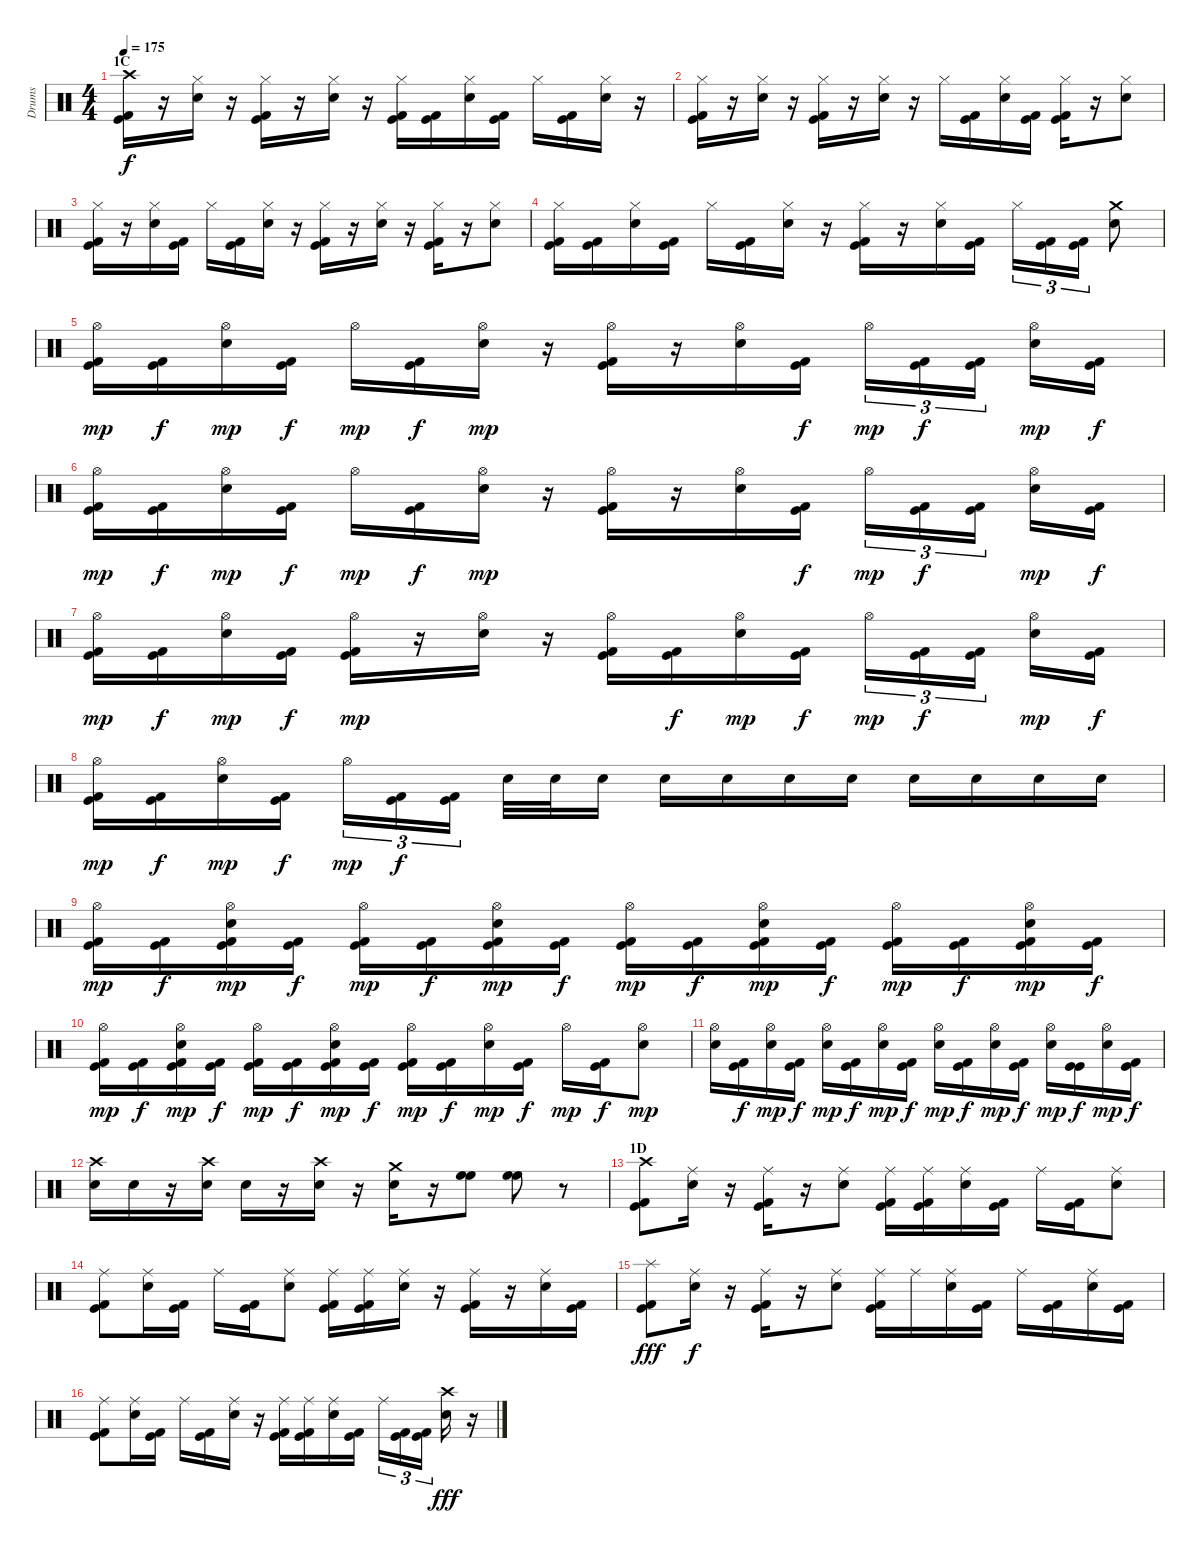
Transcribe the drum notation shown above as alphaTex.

\track ("Drums" "Drums") {instrument percussion}
\staff {score}
\articulation defaults
\ts (4 4)
\section ("" "1C")
\tempo 175
\clef neutral
\ks c
("Crash high (hit)" "Kick (hit)" "Kick (hit) 2").16{dy f} r.16 ("Hi-Hat (closed)" "Electric Snare (hit)").16 r.16 ("Hi-Hat (closed)" "Kick (hit)" "Kick (hit) 2").16 r.16 ("Hi-Hat (closed)" "Electric Snare (hit)").16 r.16 ("Hi-Hat (closed)" "Kick (hit)" "Kick (hit) 2").16 ("Kick (hit)" "Kick (hit) 2").16 ("Hi-Hat (closed)" "Electric Snare (hit)").16 ("Kick (hit)" "Kick (hit) 2").16 "Hi-Hat (closed)".16 ("Kick (hit)" "Kick (hit) 2").16 ("Hi-Hat (closed)" "Electric Snare (hit)").16 r.16 |
("Hi-Hat (closed)" "Kick (hit)" "Kick (hit) 2").16 r.16 ("Hi-Hat (closed)" "Electric Snare (hit)").16 r.16 ("Hi-Hat (closed)" "Kick (hit)" "Kick (hit) 2").16 r.16 ("Hi-Hat (closed)" "Electric Snare (hit)").16 r.16 "Hi-Hat (closed)".16 ("Kick (hit)" "Kick (hit) 2").16 ("Hi-Hat (closed)" "Electric Snare (hit)").16 ("Kick (hit)" "Kick (hit) 2").16 ("Hi-Hat (closed)" "Kick (hit)" "Kick (hit) 2").16 r.16 ("Hi-Hat (closed)" "Electric Snare (hit)").8 |
("Hi-Hat (closed)" "Kick (hit)" "Kick (hit) 2").16 r.16 ("Hi-Hat (closed)" "Electric Snare (hit)").16 ("Kick (hit)" "Kick (hit) 2").16 "Hi-Hat (closed)".16 ("Kick (hit)" "Kick (hit) 2").16 ("Hi-Hat (closed)" "Electric Snare (hit)").16 r.16 ("Hi-Hat (closed)" "Kick (hit)" "Kick (hit) 2").16 r.16 ("Hi-Hat (closed)" "Electric Snare (hit)").16 r.16 ("Hi-Hat (closed)" "Kick (hit)" "Kick (hit) 2").16 r.16 ("Hi-Hat (closed)" "Electric Snare (hit)").8 |
("Hi-Hat (closed)" "Kick (hit)" "Kick (hit) 2").16 ("Kick (hit)" "Kick (hit) 2").16 ("Hi-Hat (closed)" "Electric Snare (hit)").16 ("Kick (hit)" "Kick (hit) 2").16 "Hi-Hat (closed)".16 ("Kick (hit)" "Kick (hit) 2").16 ("Hi-Hat (closed)" "Electric Snare (hit)").16 r.16 ("Hi-Hat (closed)" "Kick (hit)" "Kick (hit) 2").16 r.16 ("Hi-Hat (closed)" "Electric Snare (hit)").16 ("Kick (hit)" "Kick (hit) 2").16 "Hi-Hat (closed)".16{tu (3 2)} ("Kick (hit)" "Kick (hit) 2").16{tu (3 2)} ("Kick (hit)" "Kick (hit) 2").16{tu (3 2)} ("Crash medium (hit)" "Electric Snare (hit)").8 |
("Hi-Hat (open)" "Kick (hit)" "Kick (hit) 2").16{dy mp} ("Kick (hit)" "Kick (hit) 2").16{dy f} ("Hi-Hat (open)" "Electric Snare (hit)").16{dy mp} ("Kick (hit)" "Kick (hit) 2").16{dy f} "Hi-Hat (open)".16{dy mp} ("Kick (hit)" "Kick (hit) 2").16{dy f} ("Hi-Hat (open)" "Electric Snare (hit)").16{dy mp} r.16 ("Hi-Hat (open)" "Kick (hit)" "Kick (hit) 2").16 r.16 ("Hi-Hat (open)" "Electric Snare (hit)").16 ("Kick (hit)" "Kick (hit) 2").16{dy f} "Hi-Hat (open)".16{tu (3 2) dy mp} ("Kick (hit)" "Kick (hit) 2").16{tu (3 2) dy f} ("Kick (hit)" "Kick (hit) 2").16{tu (3 2)} ("Hi-Hat (open)" "Electric Snare (hit)").16{dy mp} ("Kick (hit)" "Kick (hit) 2").16{dy f} |
("Hi-Hat (open)" "Kick (hit)" "Kick (hit) 2").16{dy mp} ("Kick (hit)" "Kick (hit) 2").16{dy f} ("Hi-Hat (open)" "Electric Snare (hit)").16{dy mp} ("Kick (hit)" "Kick (hit) 2").16{dy f} "Hi-Hat (open)".16{dy mp} ("Kick (hit)" "Kick (hit) 2").16{dy f} ("Hi-Hat (open)" "Electric Snare (hit)").16{dy mp} r.16 ("Hi-Hat (open)" "Kick (hit)" "Kick (hit) 2").16 r.16 ("Hi-Hat (open)" "Electric Snare (hit)").16 ("Kick (hit)" "Kick (hit) 2").16{dy f} "Hi-Hat (open)".16{tu (3 2) dy mp} ("Kick (hit)" "Kick (hit) 2").16{tu (3 2) dy f} ("Kick (hit)" "Kick (hit) 2").16{tu (3 2)} ("Hi-Hat (open)" "Electric Snare (hit)").16{dy mp} ("Kick (hit)" "Kick (hit) 2").16{dy f} |
("Hi-Hat (open)" "Kick (hit)" "Kick (hit) 2").16{dy mp} ("Kick (hit)" "Kick (hit) 2").16{dy f} ("Hi-Hat (open)" "Electric Snare (hit)").16{dy mp} ("Kick (hit)" "Kick (hit) 2").16{dy f} ("Hi-Hat (open)" "Kick (hit)" "Kick (hit) 2").16{dy mp} r.16 ("Hi-Hat (open)" "Electric Snare (hit)").16 r.16 ("Hi-Hat (open)" "Kick (hit)" "Kick (hit) 2").16 ("Kick (hit)" "Kick (hit) 2").16{dy f} ("Hi-Hat (open)" "Electric Snare (hit)").16{dy mp} ("Kick (hit)" "Kick (hit) 2").16{dy f} "Hi-Hat (open)".16{tu (3 2) dy mp} ("Kick (hit)" "Kick (hit) 2").16{tu (3 2) dy f} ("Kick (hit)" "Kick (hit) 2").16{tu (3 2)} ("Hi-Hat (open)" "Electric Snare (hit)").16{dy mp} ("Kick (hit)" "Kick (hit) 2").16{dy f} |
("Hi-Hat (open)" "Kick (hit)" "Kick (hit) 2").16{dy mp} ("Kick (hit)" "Kick (hit) 2").16{dy f} ("Hi-Hat (open)" "Electric Snare (hit)").16{dy mp} ("Kick (hit)" "Kick (hit) 2").16{dy f} "Hi-Hat (open)".16{tu (3 2) dy mp} ("Kick (hit)" "Kick (hit) 2").16{tu (3 2) dy f} ("Kick (hit)" "Kick (hit) 2").16{tu (3 2)} "Electric Snare (hit)".32 "Electric Snare (hit)".32 "Electric Snare (hit)".16 "Electric Snare (hit)".16 "Electric Snare (hit)".16 "Electric Snare (hit)".16 "Electric Snare (hit)".16 "Electric Snare (hit)".16 "Electric Snare (hit)".16 "Electric Snare (hit)".16 "Electric Snare (hit)".16 |
("Hi-Hat (open)" "Kick (hit)" "Kick (hit) 2").16{dy mp} ("Kick (hit)" "Kick (hit) 2").16{dy f} ("Hi-Hat (open)" "Electric Snare (hit)" "Kick (hit)" "Kick (hit) 2").16{dy mp} ("Kick (hit)" "Kick (hit) 2").16{dy f} ("Hi-Hat (open)" "Kick (hit)" "Kick (hit) 2").16{dy mp} ("Kick (hit)" "Kick (hit) 2").16{dy f} ("Hi-Hat (open)" "Electric Snare (hit)" "Kick (hit)" "Kick (hit) 2").16{dy mp} ("Kick (hit)" "Kick (hit) 2").16{dy f} ("Hi-Hat (open)" "Kick (hit)" "Kick (hit) 2").16{dy mp} ("Kick (hit)" "Kick (hit) 2").16{dy f} ("Hi-Hat (open)" "Electric Snare (hit)" "Kick (hit)" "Kick (hit) 2").16{dy mp} ("Kick (hit)" "Kick (hit) 2").16{dy f} ("Hi-Hat (open)" "Kick (hit)" "Kick (hit) 2").16{dy mp} ("Kick (hit)" "Kick (hit) 2").16{dy f} ("Hi-Hat (open)" "Electric Snare (hit)" "Kick (hit)" "Kick (hit) 2").16{dy mp} ("Kick (hit)" "Kick (hit) 2").16{dy f} |
("Hi-Hat (open)" "Kick (hit)" "Kick (hit) 2").16{dy mp} ("Kick (hit)" "Kick (hit) 2").16{dy f} ("Hi-Hat (open)" "Electric Snare (hit)" "Kick (hit)" "Kick (hit) 2").16{dy mp} ("Kick (hit)" "Kick (hit) 2").16{dy f} ("Hi-Hat (open)" "Kick (hit)" "Kick (hit) 2").16{dy mp} ("Kick (hit)" "Kick (hit) 2").16{dy f} ("Hi-Hat (open)" "Electric Snare (hit)" "Kick (hit)" "Kick (hit) 2").16{dy mp} ("Kick (hit)" "Kick (hit) 2").16{dy f} ("Hi-Hat (open)" "Kick (hit)" "Kick (hit) 2").16{dy mp} ("Kick (hit)" "Kick (hit) 2").16{dy f} ("Hi-Hat (open)" "Electric Snare (hit)").16{dy mp} ("Kick (hit)" "Kick (hit) 2").16{dy f} "Hi-Hat (open)".16{dy mp} ("Kick (hit)" "Kick (hit) 2").16{dy f} ("Hi-Hat (open)" "Electric Snare (hit)").8{dy mp} |
("Hi-Hat (open)" "Electric Snare (hit)").16 ("Kick (hit)" "Kick (hit) 2").16{dy f} ("Hi-Hat (open)" "Electric Snare (hit)").16{dy mp} ("Kick (hit)" "Kick (hit) 2").16{dy f} ("Hi-Hat (open)" "Electric Snare (hit)").16{dy mp} ("Kick (hit)" "Kick (hit) 2").16{dy f} ("Hi-Hat (open)" "Electric Snare (hit)").16{dy mp} ("Kick (hit)" "Kick (hit) 2").16{dy f} ("Hi-Hat (open)" "Electric Snare (hit)").16{dy mp} ("Kick (hit)" "Kick (hit) 2").16{dy f} ("Hi-Hat (open)" "Electric Snare (hit)").16{dy mp} ("Kick (hit)" "Kick (hit) 2").16{dy f} ("Hi-Hat (open)" "Electric Snare (hit)").16{dy mp} ("Kick (hit)" "Kick (hit)").16{dy f} ("Hi-Hat (open)" "Electric Snare (hit)").16{dy mp} ("Kick (hit)" "Kick (hit) 2").16{dy f} |
("Crash high (hit)" "Electric Snare (hit)").16 "Electric Snare (hit)".16 r.16 ("Crash high (hit)" "Electric Snare (hit)").16 "Electric Snare (hit)".16 r.16 ("Crash high (hit)" "Electric Snare (hit)").16 r.16 ("Crash medium (hit)" "Electric Snare (hit)").16 r.16 ("High Floor Tom (hit)" "High Floor Tom (hit)").8 ("High Floor Tom (hit)" "High Floor Tom (hit)").8 r.8 |
\section ("" "1D")
("Crash high (hit)" "Kick (hit)" "Kick (hit) 2").8 ("Ride (middle)" "Electric Snare (hit)").16 r.16 ("Ride (middle)" "Kick (hit)" "Kick (hit) 2").16 r.16 ("Ride (middle)" "Electric Snare (hit)").8 ("Ride (middle)" "Kick (hit)" "Kick (hit) 2").16 ("Ride (middle)" "Kick (hit)" "Kick (hit) 2").16 ("Ride (middle)" "Electric Snare (hit)").16 ("Kick (hit)" "Kick (hit) 2").16 "Ride (middle)".16 ("Kick (hit)" "Kick (hit) 2").16 ("Ride (middle)" "Electric Snare (hit)").8 |
("Ride (middle)" "Kick (hit)" "Kick (hit) 2").8 ("Ride (middle)" "Electric Snare (hit)").16 ("Kick (hit)" "Kick (hit) 2").16 "Ride (middle)".16 ("Kick (hit)" "Kick (hit) 2").16 ("Ride (middle)" "Electric Snare (hit)").8 ("Ride (middle)" "Kick (hit)" "Kick (hit) 2").16 ("Ride (middle)" "Kick (hit)" "Kick (hit) 2").16 ("Ride (middle)" "Electric Snare (hit)").16 r.16 ("Ride (middle)" "Kick (hit)" "Kick (hit) 2").16 r.16 ("Ride (middle)" "Electric Snare (hit)").16 ("Kick (hit)" "Kick (hit) 2").16 |
("Splash (hit)" "Kick (hit)" "Kick (hit) 2").8{dy fff} ("Ride (middle)" "Electric Snare (hit)").16{dy f} r.16 ("Ride (middle)" "Kick (hit)" "Kick (hit) 2").16 r.16 ("Ride (middle)" "Electric Snare (hit)").8 ("Ride (middle)" "Kick (hit)" "Kick (hit) 2").16 "Ride (middle)".16 ("Ride (middle)" "Electric Snare (hit)").16 ("Kick (hit)" "Kick (hit) 2").16 "Ride (middle)".16 ("Kick (hit)" "Kick (hit) 2").16 ("Ride (middle)" "Electric Snare (hit)").16 ("Kick (hit)" "Kick (hit) 2").16 |
("Ride (middle)" "Kick (hit)" "Kick (hit) 2").8 ("Ride (middle)" "Electric Snare (hit)").16 ("Kick (hit)" "Kick (hit) 2").16 "Ride (middle)".16 ("Kick (hit)" "Kick (hit) 2").16 ("Ride (middle)" "Electric Snare (hit)").16 r.16 ("Ride (middle)" "Kick (hit)" "Kick (hit) 2").16 ("Ride (middle)" "Kick (hit)" "Kick (hit) 2").16 ("Ride (middle)" "Electric Snare (hit)").16 ("Kick (hit)" "Kick (hit) 2").16 "Ride (middle)".16{tu (3 2)} ("Kick (hit)" "Kick (hit) 2").16{tu (3 2)} ("Kick (hit)" "Kick (hit) 2").16{tu (3 2)} ("Crash high (hit)" "Electric Snare (hit)").16{dy fff} r.16
